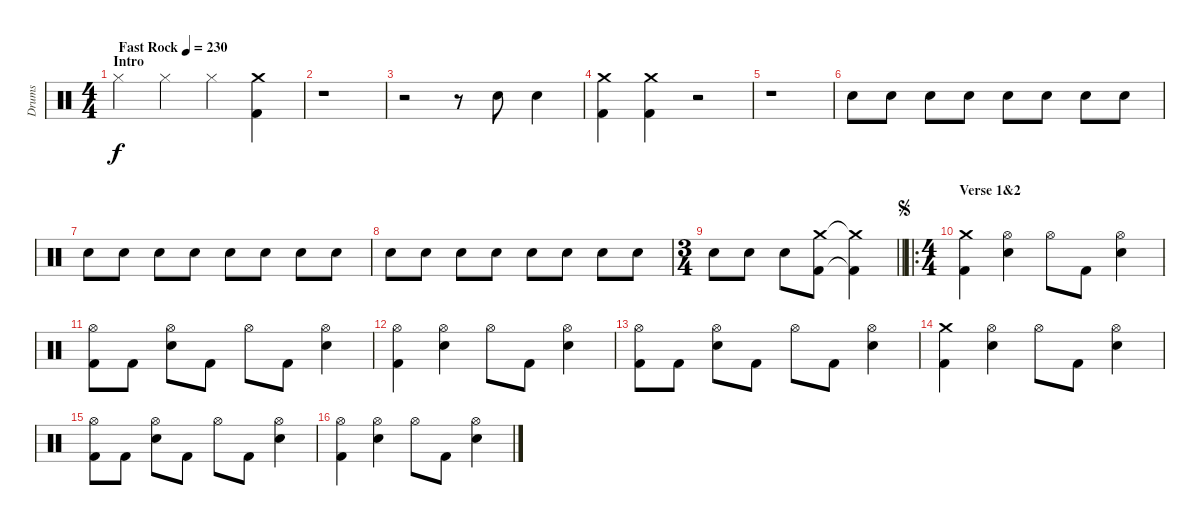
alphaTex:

\track ("Drums" "Drums") {instrument percussion}
\staff {score}
\articulation defaults
\ts (4 4)
\section ("" "Intro")
\tempo (230 "Fast Rock")
\clef neutral
\ks c "Hi-Hat (closed)".4{dy f} "Hi-Hat (closed)".4 "Hi-Hat (closed)".4
("Crash medium (hit)" "Kick (hit) 2").4 |
r.1 |
r.2 r.8 "Snare (hit) 2".8 "Snare (hit) 2".4 |
("Crash medium (hit)" "Kick (hit) 2").4 ("Crash medium (hit)" "Kick (hit) 2").4 r.2 |
r.1{volume 5} |
"Snare (hit) 2".8{volume 15} "Snare (hit) 2".8 "Snare (hit) 2".8 "Snare (hit) 2".8 "Snare (hit) 2".8 "Snare (hit) 2".8 "Snare (hit) 2".8 "Snare (hit) 2".8 |
"Snare (hit) 2".8 "Snare (hit) 2".8 "Snare (hit) 2".8 "Snare (hit) 2".8 "Snare (hit) 2".8 "Snare (hit) 2".8 "Snare (hit) 2".8 "Snare (hit) 2".8 |
"Snare (hit) 2".8 "Snare (hit) 2".8 "Snare (hit) 2".8 "Snare (hit) 2".8 "Snare (hit) 2".8 "Snare (hit) 2".8 "Snare (hit) 2".8 "Snare (hit) 2".8 |
\ts (3 4)
\barLineRight lightlight "Snare (hit) 2".8 "Snare (hit) 2".8 "Snare (hit) 2".8
("Crash medium (hit)" "Kick (hit) 2").8 ("Crash medium (hit)"{t} "Kick (hit) 2"{t}).4 |
\ro
\ts (4 4)
\section ("" "Verse 1&2")
\jump segno
("Crash medium (hit)" "Kick (hit) 2").4 ("Hi-Hat (open)" "Snare (hit) 2").4 "Hi-Hat (open)".8 "Kick (hit) 2".8 ("Hi-Hat (open)" "Snare (hit) 2").4 |
("Hi-Hat (open)" "Kick (hit) 2").8 "Kick (hit) 2".8 ("Hi-Hat (open)" "Snare (hit) 2").8 "Kick (hit) 2".8 "Hi-Hat (open)".8 "Kick (hit) 2".8 ("Hi-Hat (open)" "Snare (hit) 2").4 |
("Hi-Hat (open)" "Kick (hit) 2").4 ("Hi-Hat (open)" "Snare (hit) 2").4 "Hi-Hat (open)".8 "Kick (hit) 2".8 ("Hi-Hat (open)" "Snare (hit) 2").4 |
("Hi-Hat (open)" "Kick (hit) 2").8 "Kick (hit) 2".8 ("Hi-Hat (open)" "Snare (hit) 2").8 "Kick (hit) 2".8 "Hi-Hat (open)".8 "Kick (hit) 2".8 ("Hi-Hat (open)" "Snare (hit) 2").4 |
("Crash medium (hit)" "Kick (hit) 2").4 ("Hi-Hat (open)" "Snare (hit) 2").4 "Hi-Hat (open)".8 "Kick (hit) 2".8 ("Hi-Hat (open)" "Snare (hit) 2").4 |
("Hi-Hat (open)" "Kick (hit) 2").8 "Kick (hit) 2".8 ("Hi-Hat (open)" "Snare (hit) 2").8 "Kick (hit) 2".8 "Hi-Hat (open)".8 "Kick (hit) 2".8 ("Hi-Hat (open)" "Snare (hit) 2").4 |
("Hi-Hat (open)" "Kick (hit) 2").4 ("Hi-Hat (open)" "Snare (hit) 2").4 "Hi-Hat (open)".8 "Kick (hit) 2".8 ("Hi-Hat (open)" "Snare (hit) 2").4
